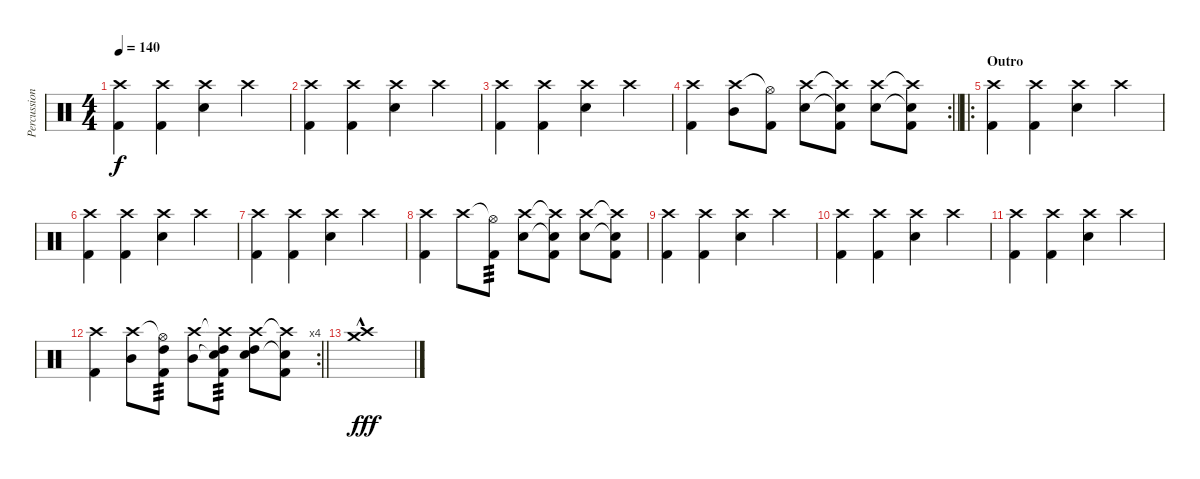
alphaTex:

\track ("Percussion" "Percussion") {instrument percussion}
\staff {score}
\articulation defaults
\ts (4 4)
\tempo 140
\clef neutral
\ks c
("Crash high (hit)" "Kick (hit) 2").4{dy f} ("Crash high (hit)" "Kick (hit) 2").4 ("Crash high (hit)" "Snare (hit) 2").4 "Crash high (hit)".4 |
("Crash high (hit)" "Kick (hit) 2").4 ("Crash high (hit)" "Kick (hit) 2").4 ("Crash high (hit)" "Snare (hit) 2").4 "Crash high (hit)".4 |
("Crash high (hit)" "Kick (hit) 2").4 ("Crash high (hit)" "Kick (hit) 2").4 ("Crash high (hit)" "Snare (hit) 2").4 "Crash high (hit)".4 |
\rc 2
\barLineRight lightlight
("Crash high (hit)" "Kick (hit) 2").4 ("Crash high (hit)" "Mid Tom (hit)").8 ("Hi-Hat (open)"{t} "Kick (hit) 2").8 ("Crash high (hit)" "Snare (hit) 2").8 ("Crash high (hit)"{t} "Snare (hit) 2"{t} "Kick (hit) 2").8 ("Crash high (hit)" "Snare (hit) 2").8 ("Crash high (hit)"{t} "Snare (hit) 2"{t} "Kick (hit) 2").8 |
\ro
\section ("" "Outro")
("Crash high (hit)" "Kick (hit) 2").4 ("Crash high (hit)" "Kick (hit) 2").4 ("Crash high (hit)" "Snare (hit) 2").4 "Crash high (hit)".4 |
("Crash high (hit)" "Kick (hit) 2").4 ("Crash high (hit)" "Kick (hit) 2").4 ("Crash high (hit)" "Snare (hit) 2").4 "Crash high (hit)".4 |
("Crash high (hit)" "Kick (hit) 2").4 ("Crash high (hit)" "Kick (hit) 2").4 ("Crash high (hit)" "Snare (hit) 2").4 "Crash high (hit)".4 |
("Crash high (hit)" "Kick (hit) 2").4 "Crash high (hit)".8 ("Hi-Hat (open)"{t} "Kick (hit) 2").8{tp 3} ("Crash high (hit)" "Snare (hit) 2").8 ("Crash high (hit)"{t} "Snare (hit) 2"{t} "Kick (hit) 2").8 ("Crash high (hit)" "Snare (hit) 2").8 ("Crash high (hit)"{t} "Snare (hit) 2"{t} "Kick (hit) 2").8 |
("Crash high (hit)" "Kick (hit) 2").4 ("Crash high (hit)" "Kick (hit) 2").4 ("Crash high (hit)" "Snare (hit) 2").4 "Crash high (hit)".4 |
("Crash high (hit)" "Kick (hit) 2").4 ("Crash high (hit)" "Kick (hit) 2").4 ("Crash high (hit)" "Snare (hit) 2").4 "Crash high (hit)".4 |
("Crash high (hit)" "Kick (hit) 2").4 ("Crash high (hit)" "Kick (hit) 2").4 ("Crash high (hit)" "Snare (hit) 2").4 "Crash high (hit)".4 |
\rc 4
\barLineRight lightlight
("Crash high (hit)" "Kick (hit) 2").4 ("Crash high (hit)" "Mid Tom (hit)").8 ("Hi-Hat (open)"{t} "Kick (hit) 2" "High Tom (hit)").8{tp 3} ("Crash high (hit)" "Mid Tom (hit)").8 ("Crash high (hit)"{t} "Snare (hit) 2"{t} "Kick (hit) 2" "High Tom (hit)").8{tp 3} ("Crash high (hit)" "Snare (hit) 2" "High Tom (hit)").8 ("Crash high (hit)"{t} "Snare (hit) 2"{t} "Kick (hit) 2").8 |
("Crash high (hit)"{hac} "Crash medium (hit)").1{dy fff}
